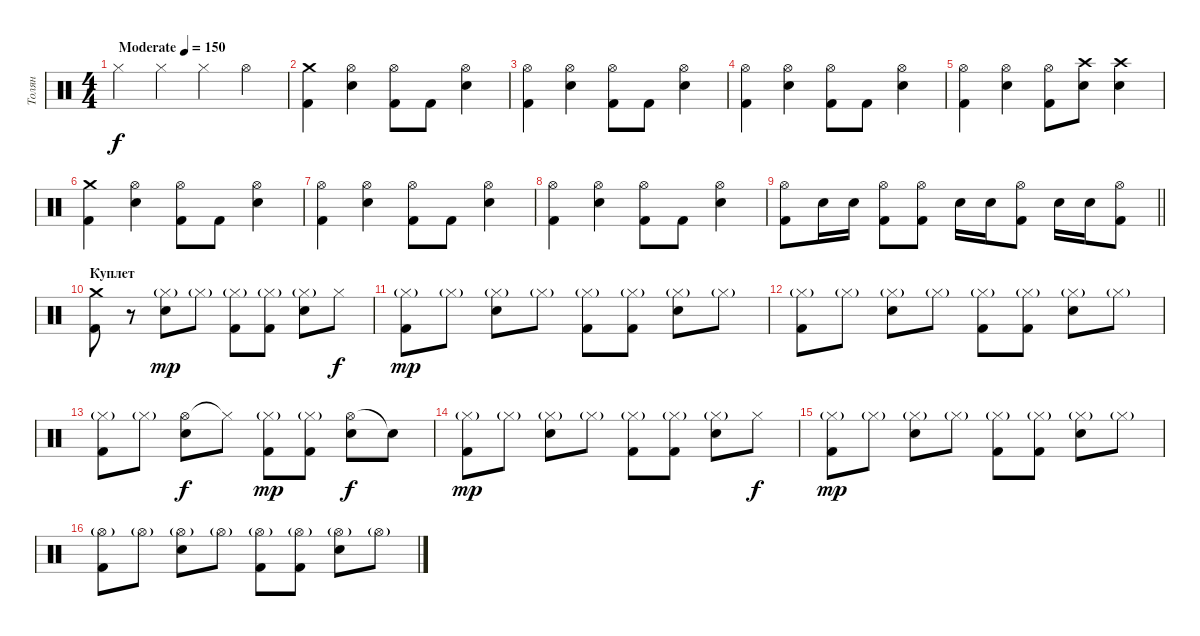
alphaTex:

\track ("Толян" "Толян") {instrument percussion}
\staff {score}
\articulation defaults
\ts (4 4)
\tempo (150 "Moderate")
\clef neutral
\ks c "Hi-Hat (closed)".4{dy f} "Hi-Hat (closed)".4 "Hi-Hat (closed)".4 "Hi-Hat (open)".4
|
("Kick (hit) 2" "Crash medium (hit)").4 ("Electric Snare (hit)" "Hi-Hat (open)").4 ("Kick (hit) 2" "Hi-Hat (open)").8 "Kick (hit) 2".8 ("Electric Snare (hit)" "Hi-Hat (open)").4 |
("Kick (hit) 2" "Hi-Hat (open)").4 ("Electric Snare (hit)" "Hi-Hat (open)").4 ("Kick (hit) 2" "Hi-Hat (open)").8 "Kick (hit) 2".8 ("Electric Snare (hit)" "Hi-Hat (open)").4 |
("Kick (hit) 2" "Hi-Hat (open)").4 ("Electric Snare (hit)" "Hi-Hat (open)").4 ("Kick (hit) 2" "Hi-Hat (open)").8 "Kick (hit) 2".8 ("Electric Snare (hit)" "Hi-Hat (open)").4 |
("Kick (hit) 2" "Hi-Hat (open)").4 ("Electric Snare (hit)" "Hi-Hat (open)").4 ("Kick (hit) 2" "Hi-Hat (open)").8 ("Electric Snare (hit)" "Crash high (hit)").8 ("Electric Snare (hit)" "Crash high (hit)").4 |
("Kick (hit) 2" "Crash medium (hit)").4 ("Electric Snare (hit)" "Hi-Hat (open)").4 ("Kick (hit) 2" "Hi-Hat (open)").8 "Kick (hit) 2".8 ("Electric Snare (hit)" "Hi-Hat (open)").4 |
("Kick (hit) 2" "Hi-Hat (open)").4 ("Electric Snare (hit)" "Hi-Hat (open)").4 ("Kick (hit) 2" "Hi-Hat (open)").8 "Kick (hit) 2".8 ("Electric Snare (hit)" "Hi-Hat (open)").4 |
("Kick (hit) 2" "Hi-Hat (open)").4 ("Electric Snare (hit)" "Hi-Hat (open)").4 ("Kick (hit) 2" "Hi-Hat (open)").8 "Kick (hit) 2".8 ("Electric Snare (hit)" "Hi-Hat (open)").4 |
\barLineRight lightlight
("Kick (hit) 2" "Hi-Hat (open)").8 "Electric Snare (hit)".16 "Electric Snare (hit)".16 ("Kick (hit) 2" "Hi-Hat (open)").8 ("Kick (hit) 2" "Hi-Hat (open)").8 "Electric Snare (hit)".16 "Electric Snare (hit)".16 ("Kick (hit) 2" "Hi-Hat (open)").8 "Electric Snare (hit)".16 "Electric Snare (hit)".16 ("Kick (hit) 2" "Hi-Hat (open)").8 |
\section ("" "Куплет")
("Crash medium (hit)" "Kick (hit) 2").8 r.8 ("Hi-Hat (closed)"{g} "Electric Snare (hit)").8{dy mp} "Hi-Hat (closed)"{g}.8 ("Hi-Hat (closed)"{g} "Kick (hit) 2").8 ("Hi-Hat (closed)"{g} "Kick (hit) 2").8 ("Hi-Hat (closed)"{g} "Electric Snare (hit)").8 "Hi-Hat (closed)".8{dy f} |
("Hi-Hat (closed)"{g} "Kick (hit) 2").8{dy mp} "Hi-Hat (closed)"{g}.8 ("Hi-Hat (closed)"{g} "Electric Snare (hit)").8 "Hi-Hat (closed)"{g}.8 ("Hi-Hat (closed)"{g} "Kick (hit) 2").8 ("Hi-Hat (closed)"{g} "Kick (hit) 2").8 ("Hi-Hat (closed)"{g} "Electric Snare (hit)").8 "Hi-Hat (closed)"{g}.8 |
("Hi-Hat (closed)"{g} "Kick (hit) 2").8 "Hi-Hat (closed)"{g}.8 ("Hi-Hat (closed)"{g} "Electric Snare (hit)").8 "Hi-Hat (closed)"{g}.8 ("Hi-Hat (closed)"{g} "Kick (hit) 2").8 ("Hi-Hat (closed)"{g} "Kick (hit) 2").8 ("Hi-Hat (closed)"{g} "Electric Snare (hit)").8 "Hi-Hat (closed)"{g}.8 |
("Hi-Hat (closed)"{g} "Kick (hit) 2").8 "Hi-Hat (closed)"{g}.8 ("Hi-Hat (open)" "Electric Snare (hit)").8{dy f} "Hi-Hat (closed)"{t}.8 ("Hi-Hat (closed)"{g} "Kick (hit) 2").8{dy mp} ("Hi-Hat (closed)"{g} "Kick (hit) 2").8 ("Hi-Hat (open)" "Electric Snare (hit)").8{dy f} "Snare (hit)"{t}.8 |
("Hi-Hat (closed)"{g} "Kick (hit) 2").8{dy mp} "Hi-Hat (closed)"{g}.8 ("Hi-Hat (closed)"{g} "Electric Snare (hit)").8 "Hi-Hat (closed)"{g}.8 ("Hi-Hat (closed)"{g} "Kick (hit) 2").8 ("Hi-Hat (closed)"{g} "Kick (hit) 2").8 ("Hi-Hat (closed)"{g} "Electric Snare (hit)").8 "Hi-Hat (closed)".8{dy f} |
("Hi-Hat (closed)"{g} "Kick (hit) 2").8{dy mp} "Hi-Hat (closed)"{g}.8 ("Hi-Hat (closed)"{g} "Electric Snare (hit)").8 "Hi-Hat (closed)"{g}.8 ("Hi-Hat (closed)"{g} "Kick (hit) 2").8 ("Hi-Hat (closed)"{g} "Kick (hit) 2").8 ("Hi-Hat (closed)"{g} "Electric Snare (hit)").8 "Hi-Hat (closed)"{g}.8 |
("Hi-Hat (open)"{g} "Kick (hit) 2").8 "Hi-Hat (open)"{g}.8 ("Hi-Hat (open)"{g} "Electric Snare (hit)").8 "Hi-Hat (open)"{g}.8 ("Hi-Hat (open)"{g} "Kick (hit) 2").8 ("Hi-Hat (open)"{g} "Kick (hit) 2").8 ("Hi-Hat (open)"{g} "Electric Snare (hit)").8 "Hi-Hat (open)"{g}.8
